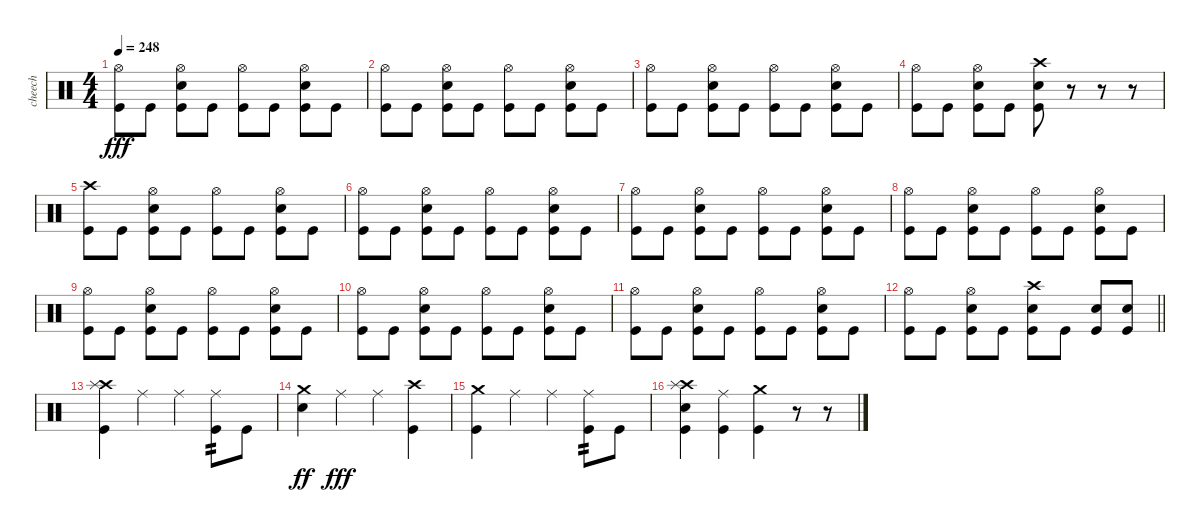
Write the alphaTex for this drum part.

\track ("cheech" "cheech") {instrument percussion}
\staff {score}
\articulation defaults
\ts (4 4)
\tempo 248
\clef neutral
\ks c
("Hi-Hat (open)" "Kick (hit)").8{dy fff} "Kick (hit)".8 ("Hi-Hat (open)" "Electric Snare (hit)" "Kick (hit)").8 "Kick (hit)".8 ("Hi-Hat (open)" "Kick (hit)").8 "Kick (hit)".8 ("Hi-Hat (open)" "Electric Snare (hit)" "Kick (hit)").8 "Kick (hit)".8 |
("Hi-Hat (open)" "Kick (hit)").8 "Kick (hit)".8 ("Hi-Hat (open)" "Electric Snare (hit)" "Kick (hit)").8 "Kick (hit)".8 ("Hi-Hat (open)" "Kick (hit)").8 "Kick (hit)".8 ("Hi-Hat (open)" "Electric Snare (hit)" "Kick (hit)").8 "Kick (hit)".8 |
("Hi-Hat (open)" "Kick (hit)").8 "Kick (hit)".8 ("Hi-Hat (open)" "Electric Snare (hit)" "Kick (hit)").8 "Kick (hit)".8 ("Hi-Hat (open)" "Kick (hit)").8 "Kick (hit)".8 ("Hi-Hat (open)" "Electric Snare (hit)" "Kick (hit)").8 "Kick (hit)".8 |
("Hi-Hat (open)" "Kick (hit)").8 "Kick (hit)".8 ("Hi-Hat (open)" "Electric Snare (hit)" "Kick (hit)").8 "Kick (hit)".8 ("Crash high (hit)" "Electric Snare (hit)" "Kick (hit)").8 r.8 r.8 r.8 |
("Crash high (hit)" "Kick (hit)").8 "Kick (hit)".8 ("Hi-Hat (open)" "Electric Snare (hit)" "Kick (hit)").8 "Kick (hit)".8 ("Hi-Hat (open)" "Kick (hit)").8 "Kick (hit)".8 ("Hi-Hat (open)" "Electric Snare (hit)" "Kick (hit)").8 "Kick (hit)".8 |
("Hi-Hat (open)" "Kick (hit)").8 "Kick (hit)".8 ("Hi-Hat (open)" "Electric Snare (hit)" "Kick (hit)").8 "Kick (hit)".8 ("Hi-Hat (open)" "Kick (hit)").8 "Kick (hit)".8 ("Hi-Hat (open)" "Electric Snare (hit)" "Kick (hit)").8 "Kick (hit)".8 |
("Hi-Hat (open)" "Kick (hit)").8 "Kick (hit)".8 ("Hi-Hat (open)" "Electric Snare (hit)" "Kick (hit)").8 "Kick (hit)".8 ("Hi-Hat (open)" "Kick (hit)").8 "Kick (hit)".8 ("Hi-Hat (open)" "Electric Snare (hit)" "Kick (hit)").8 "Kick (hit)".8 |
("Hi-Hat (open)" "Kick (hit)").8 "Kick (hit)".8 ("Hi-Hat (open)" "Electric Snare (hit)" "Kick (hit)").8 "Kick (hit)".8 ("Hi-Hat (open)" "Kick (hit)").8 "Kick (hit)".8 ("Hi-Hat (open)" "Electric Snare (hit)" "Kick (hit)").8 "Kick (hit)".8 |
("Hi-Hat (open)" "Kick (hit)").8 "Kick (hit)".8 ("Hi-Hat (open)" "Electric Snare (hit)" "Kick (hit)").8 "Kick (hit)".8 ("Hi-Hat (open)" "Kick (hit)").8 "Kick (hit)".8 ("Hi-Hat (open)" "Electric Snare (hit)" "Kick (hit)").8 "Kick (hit)".8 |
("Hi-Hat (open)" "Kick (hit)").8 "Kick (hit)".8 ("Hi-Hat (open)" "Electric Snare (hit)" "Kick (hit)").8 "Kick (hit)".8 ("Hi-Hat (open)" "Kick (hit)").8 "Kick (hit)".8 ("Hi-Hat (open)" "Electric Snare (hit)" "Kick (hit)").8 "Kick (hit)".8 |
("Hi-Hat (open)" "Kick (hit)").8 "Kick (hit)".8 ("Hi-Hat (open)" "Electric Snare (hit)" "Kick (hit)").8 "Kick (hit)".8 ("Hi-Hat (open)" "Kick (hit)").8 "Kick (hit)".8 ("Hi-Hat (open)" "Electric Snare (hit)" "Kick (hit)").8 "Kick (hit)".8 |
\barLineRight lightlight
("Hi-Hat (open)" "Kick (hit)").8 "Kick (hit)".8 ("Hi-Hat (open)" "Electric Snare (hit)" "Kick (hit)").8 "Kick (hit)".8 ("Crash high (hit)" "Electric Snare (hit)" "Kick (hit)").8 "Kick (hit)".8 ("Electric Snare (hit)" "Kick (hit)").8 ("Electric Snare (hit)" "Kick (hit)").8 |
("Crash high (hit)" "Splash (hit)" "Kick (hit)").4 "Ride (middle)".4 "Ride (middle)".4 ("Ride (middle)" "Kick (hit)").8{tp 2} "Kick (hit)".8 |
("Crash medium (hit)" "Electric Snare (hit)").4{dy ff} "Ride (middle)".4{dy fff} "Ride (middle)".4 ("Crash high (hit)" "Kick (hit)").4 |
("Crash medium (hit)" "Kick (hit)").4 "Ride (middle)".4 "Ride (middle)".4 ("Ride (middle)" "Kick (hit)").8{tp 2} "Kick (hit)".8 |
("Crash high (hit)" "Splash (hit)" "Electric Snare (hit)" "Kick (hit)").4 ("Ride (middle)" "Kick (hit)").4 ("Crash medium (hit)" "Kick (hit)").4 r.8 r.8
